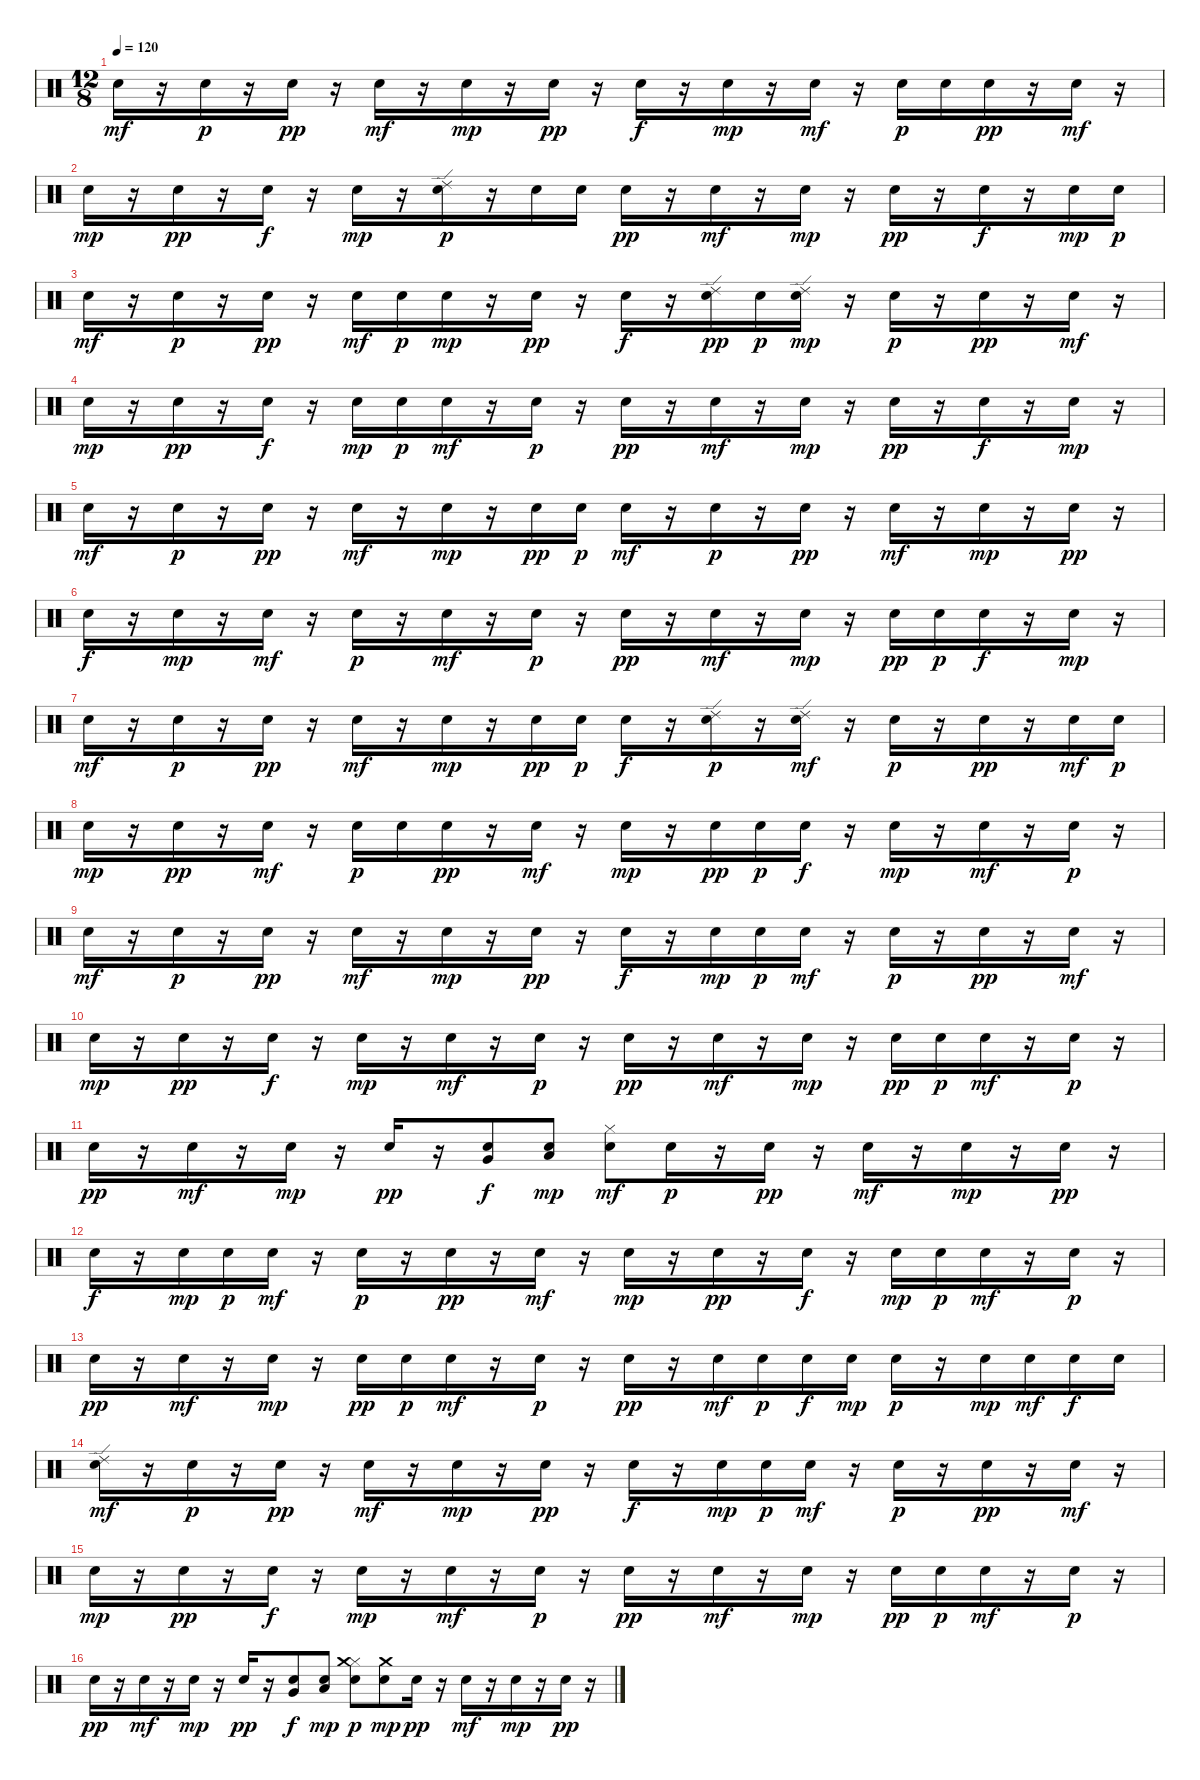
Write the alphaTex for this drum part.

\track "" {instrument percussion}
\staff {score}
\articulation defaults
\ts (12 8)
\tempo 120
\clef neutral
\ks c "Snare (hit) 2".16{dy mf}
r.16 "Snare (hit) 2".16{dy p} r.16 "Snare (hit) 2".16{dy pp} r.16 "Snare (hit) 2".16{dy mf} r.16 "Snare (hit) 2".16{dy mp} r.16 "Snare (hit) 2".16{dy pp} r.16 "Snare (hit) 2".16{dy f} r.16 "Snare (hit) 2".16{dy mp} r.16 "Snare (hit) 2".16{dy mf} r.16 "Snare (hit) 2".16{dy p} "Snare (hit) 2".16 "Snare (hit) 2".16{dy pp} r.16 "Snare (hit) 2".16{dy mf} r.16 |
"Snare (hit) 2".16{dy mp} r.16 "Snare (hit) 2".16{dy pp} r.16 "Snare (hit) 2".16{dy f} r.16 "Snare (hit) 2".16{dy mp} r.16 ("Snare (hit) 2" "Ride (edge) 2").16{dy p} r.16 "Snare (hit) 2".16 "Snare (hit) 2".16 "Snare (hit) 2".16{dy pp} r.16 "Snare (hit) 2".16{dy mf} r.16 "Snare (hit) 2".16{dy mp} r.16 "Snare (hit) 2".16{dy pp} r.16 "Snare (hit) 2".16{dy f} r.16 "Snare (hit) 2".16{dy mp} "Snare (hit) 2".16{dy p} |
"Snare (hit) 2".16{dy mf} r.16 "Snare (hit) 2".16{dy p} r.16 "Snare (hit) 2".16{dy pp} r.16 "Snare (hit) 2".16{dy mf} "Snare (hit) 2".16{dy p} "Snare (hit) 2".16{dy mp} r.16 "Snare (hit) 2".16{dy pp} r.16 "Snare (hit) 2".16{dy f} r.16 ("Snare (hit) 2" "Ride (edge) 2").16{dy pp} "Snare (hit) 2".16{dy p} ("Snare (hit) 2" "Ride (edge) 2").16{dy mp} r.16 "Snare (hit) 2".16{dy p} r.16 "Snare (hit) 2".16{dy pp} r.16 "Snare (hit) 2".16{dy mf} r.16 |
"Snare (hit) 2".16{dy mp} r.16 "Snare (hit) 2".16{dy pp} r.16 "Snare (hit) 2".16{dy f} r.16 "Snare (hit) 2".16{dy mp} "Snare (hit) 2".16{dy p} "Snare (hit) 2".16{dy mf} r.16 "Snare (hit) 2".16{dy p} r.16 "Snare (hit) 2".16{dy pp} r.16 "Snare (hit) 2".16{dy mf} r.16 "Snare (hit) 2".16{dy mp} r.16 "Snare (hit) 2".16{dy pp} r.16 "Snare (hit) 2".16{dy f} r.16 "Snare (hit) 2".16{dy mp} r.16 |
"Snare (hit) 2".16{dy mf} r.16 "Snare (hit) 2".16{dy p} r.16 "Snare (hit) 2".16{dy pp} r.16 "Snare (hit) 2".16{dy mf} r.16 "Snare (hit) 2".16{dy mp} r.16 "Snare (hit) 2".16{dy pp} "Snare (hit) 2".16{dy p} "Snare (hit) 2".16{dy mf} r.16 "Snare (hit) 2".16{dy p} r.16 "Snare (hit) 2".16{dy pp} r.16 "Snare (hit) 2".16{dy mf} r.16 "Snare (hit) 2".16{dy mp} r.16 "Snare (hit) 2".16{dy pp} r.16 |
"Snare (hit) 2".16{dy f} r.16 "Snare (hit) 2".16{dy mp} r.16 "Snare (hit) 2".16{dy mf} r.16 "Snare (hit) 2".16{dy p} r.16 "Snare (hit) 2".16{dy mf} r.16 "Snare (hit) 2".16{dy p} r.16 "Snare (hit) 2".16{dy pp} r.16 "Snare (hit) 2".16{dy mf} r.16 "Snare (hit) 2".16{dy mp} r.16 "Snare (hit) 2".16{dy pp} "Snare (hit) 2".16{dy p} "Snare (hit) 2".16{dy f} r.16 "Snare (hit) 2".16{dy mp} r.16 |
"Snare (hit) 2".16{dy mf} r.16 "Snare (hit) 2".16{dy p} r.16 "Snare (hit) 2".16{dy pp} r.16 "Snare (hit) 2".16{dy mf} r.16 "Snare (hit) 2".16{dy mp} r.16 "Snare (hit) 2".16{dy pp} "Snare (hit) 2".16{dy p} "Snare (hit) 2".16{dy f} r.16 ("Snare (hit) 2" "Ride (edge) 2").16{dy p} r.16 ("Snare (hit) 2" "Ride (edge) 2").16{dy mf} r.16 "Snare (hit) 2".16{dy p} r.16 "Snare (hit) 2".16{dy pp} r.16 "Snare (hit) 2".16{dy mf} "Snare (hit) 2".16{dy p} |
"Snare (hit) 2".16{dy mp} r.16 "Snare (hit) 2".16{dy pp} r.16 "Snare (hit) 2".16{dy mf} r.16 "Snare (hit) 2".16{dy p} "Snare (hit) 2".16 "Snare (hit) 2".16{dy pp} r.16 "Snare (hit) 2".16{dy mf} r.16 "Snare (hit) 2".16{dy mp} r.16 "Snare (hit) 2".16{dy pp} "Snare (hit) 2".16{dy p} "Snare (hit) 2".16{dy f} r.16 "Snare (hit) 2".16{dy mp} r.16 "Snare (hit) 2".16{dy mf} r.16 "Snare (hit) 2".16{dy p} r.16 |
"Snare (hit) 2".16{dy mf} r.16 "Snare (hit) 2".16{dy p} r.16 "Snare (hit) 2".16{dy pp} r.16 "Snare (hit) 2".16{dy mf} r.16 "Snare (hit) 2".16{dy mp} r.16 "Snare (hit) 2".16{dy pp} r.16 "Snare (hit) 2".16{dy f} r.16 "Snare (hit) 2".16{dy mp} "Snare (hit) 2".16{dy p} "Snare (hit) 2".16{dy mf} r.16 "Snare (hit) 2".16{dy p} r.16 "Snare (hit) 2".16{dy pp} r.16 "Snare (hit) 2".16{dy mf} r.16 |
"Snare (hit) 2".16{dy mp} r.16 "Snare (hit) 2".16{dy pp} r.16 "Snare (hit) 2".16{dy f} r.16 "Snare (hit) 2".16{dy mp} r.16 "Snare (hit) 2".16{dy mf} r.16 "Snare (hit) 2".16{dy p} r.16 "Snare (hit) 2".16{dy pp} r.16 "Snare (hit) 2".16{dy mf} r.16 "Snare (hit) 2".16{dy mp} r.16 "Snare (hit) 2".16{dy pp} "Snare (hit) 2".16{dy p} "Snare (hit) 2".16{dy mf} r.16 "Snare (hit) 2".16{dy p} r.16 |
"Snare (hit) 2".16{dy pp} r.16 "Snare (hit) 2".16{dy mf} r.16 "Snare (hit) 2".16{dy mp} r.16 "Snare (hit) 2".16{dy pp} r.16 ("Snare (hit) 2" "Very Low Tom (hit)").8{dy f} ("Snare (hit) 2" "Low Floor Tom (hit)").8{dy mp} ("Snare (hit) 2" "Hi-Hat (closed)").8{dy mf} "Snare (hit) 2".16{dy p} r.16 "Snare (hit) 2".16{dy pp} r.16 "Snare (hit) 2".16{dy mf} r.16 "Snare (hit) 2".16{dy mp} r.16 "Snare (hit) 2".16{dy pp} r.16 |
"Snare (hit) 2".16{dy f} r.16 "Snare (hit) 2".16{dy mp} "Snare (hit) 2".16{dy p} "Snare (hit) 2".16{dy mf} r.16 "Snare (hit) 2".16{dy p} r.16 "Snare (hit) 2".16{dy pp} r.16 "Snare (hit) 2".16{dy mf} r.16 "Snare (hit) 2".16{dy mp} r.16 "Snare (hit) 2".16{dy pp} r.16 "Snare (hit) 2".16{dy f} r.16 "Snare (hit) 2".16{dy mp} "Snare (hit) 2".16{dy p} "Snare (hit) 2".16{dy mf} r.16 "Snare (hit) 2".16{dy p} r.16 |
"Snare (hit) 2".16{dy pp} r.16 "Snare (hit) 2".16{dy mf} r.16 "Snare (hit) 2".16{dy mp} r.16 "Snare (hit) 2".16{dy pp} "Snare (hit) 2".16{dy p} "Snare (hit) 2".16{dy mf} r.16 "Snare (hit) 2".16{dy p} r.16 "Snare (hit) 2".16{dy pp} r.16 "Snare (hit) 2".16{dy mf} "Snare (hit) 2".16{dy p} "Snare (hit) 2".16{dy f} "Snare (hit) 2".16{dy mp} "Snare (hit) 2".16{dy p} r.16 "Snare (hit) 2".16{dy mp} "Snare (hit) 2".16{dy mf} "Snare (hit) 2".16{dy f} "Snare (hit) 2".16 |
("Snare (hit) 2" "Ride (edge) 2").16{dy mf} r.16 "Snare (hit) 2".16{dy p} r.16 "Snare (hit) 2".16{dy pp} r.16 "Snare (hit) 2".16{dy mf} r.16 "Snare (hit) 2".16{dy mp} r.16 "Snare (hit) 2".16{dy pp} r.16 "Snare (hit) 2".16{dy f} r.16 "Snare (hit) 2".16{dy mp} "Snare (hit) 2".16{dy p} "Snare (hit) 2".16{dy mf} r.16 "Snare (hit) 2".16{dy p} r.16 "Snare (hit) 2".16{dy pp} r.16 "Snare (hit) 2".16{dy mf} r.16 |
"Snare (hit) 2".16{dy mp} r.16 "Snare (hit) 2".16{dy pp} r.16 "Snare (hit) 2".16{dy f} r.16 "Snare (hit) 2".16{dy mp} r.16 "Snare (hit) 2".16{dy mf} r.16 "Snare (hit) 2".16{dy p} r.16 "Snare (hit) 2".16{dy pp} r.16 "Snare (hit) 2".16{dy mf} r.16 "Snare (hit) 2".16{dy mp} r.16 "Snare (hit) 2".16{dy pp} "Snare (hit) 2".16{dy p} "Snare (hit) 2".16{dy mf} r.16 "Snare (hit) 2".16{dy p} r.16 |
"Snare (hit) 2".16{dy pp} r.16 "Snare (hit) 2".16{dy mf} r.16 "Snare (hit) 2".16{dy mp} r.16 "Snare (hit) 2".16{dy pp} r.16 ("Snare (hit) 2" "Very Low Tom (hit)").8{dy f} ("Snare (hit) 2" "Low Floor Tom (hit)").8{dy mp} ("Snare (hit) 2" "Hi-Hat (closed)" "Crash medium (hit)").8{dy p} ("Snare (hit) 2" "Crash medium (hit)").8{dy mp} "Snare (hit) 2".16{dy pp} r.16 "Snare (hit) 2".16{dy mf} r.16 "Snare (hit) 2".16{dy mp} r.16 "Snare (hit) 2".16{dy pp} r.16
